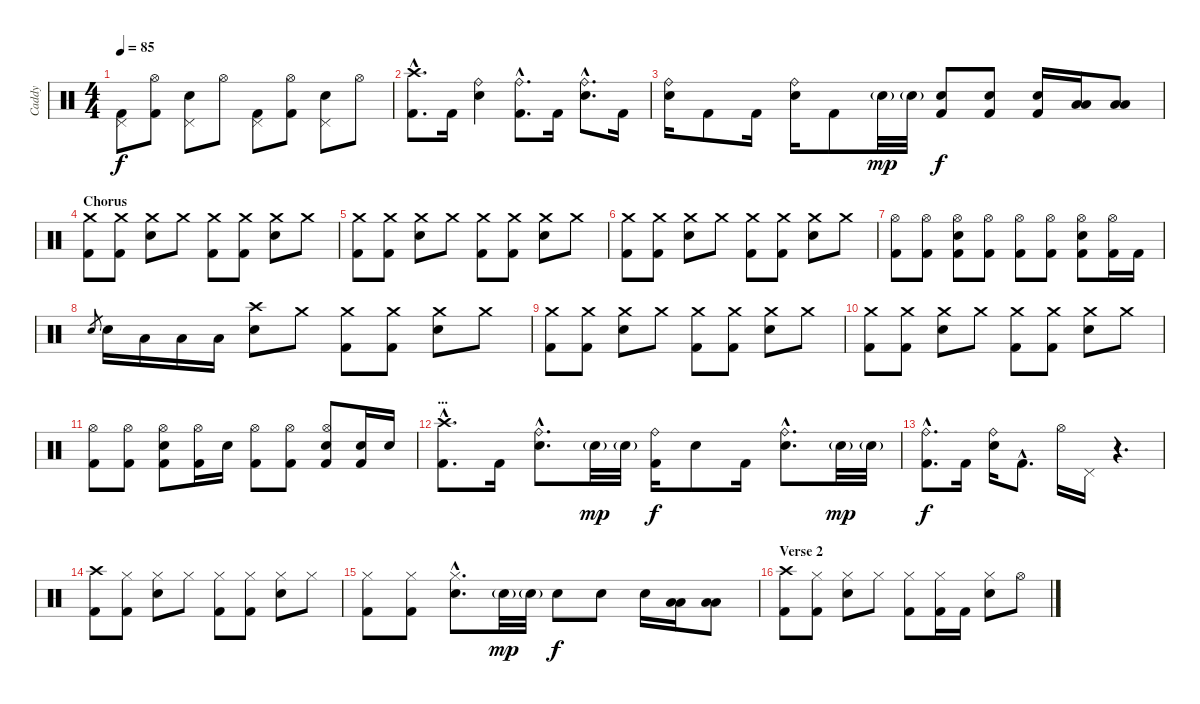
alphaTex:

\track ("Caddy" "Caddy") {instrument percussion}
\staff {score}
\articulation defaults
\ts (4 4)
\tempo 85
\clef neutral
\ks c
("Pedal Hi-Hat (hit)" "Kick (hit) 2").8{dy f} ("Hi-Hat (open)" "Kick (hit) 2").8 ("Pedal Hi-Hat (hit)" "Electric Snare (hit)").8 "Hi-Hat (open)".8 ("Pedal Hi-Hat (hit)" "Kick (hit) 2").8 ("Hi-Hat (open)" "Kick (hit) 2").8 ("Pedal Hi-Hat (hit)" "Electric Snare (hit)").8 "Hi-Hat (open)".8 |
("Crash high (hit)"{hac} "Kick (hit) 2"{hac}).8{d} "Kick (hit) 2".16 ("Ride (bell)" "Electric Snare (hit)").4 ("Ride (bell)"{hac} "Kick (hit) 2"{hac}).8{d} "Kick (hit) 2".16 ("Ride (bell)"{hac} "Electric Snare (hit)"{hac}).8{d} "Kick (hit) 2".16 |
("Ride (bell)" "Electric Snare (hit)").16 "Kick (hit) 2".8 "Kick (hit) 2".16 ("Ride (bell)" "Electric Snare (hit)").16 "Kick (hit) 2".8 "Electric Snare (hit)"{g}.32{dy mp} "Electric Snare (hit)"{g}.32 ("Electric Snare (hit)" "Kick (hit) 2").8{dy f} ("Electric Snare (hit)" "Kick (hit) 2").8 ("Electric Snare (hit)" "Kick (hit) 2").16 ("Low Tom (hit)" "Low Floor Tom (hit)").16 ("Low Tom (hit)" "Low Floor Tom (hit)").8 |
\section ("" "Chorus")
("Crash medium (hit)" "Kick (hit) 2").8 ("Crash medium (hit)" "Kick (hit) 2").8 ("Crash medium (hit)" "Electric Snare (hit)").8 "Crash medium (hit)".8 ("Crash medium (hit)" "Kick (hit) 2").8 ("Crash medium (hit)" "Kick (hit) 2").8 ("Crash medium (hit)" "Electric Snare (hit)").8 "Crash medium (hit)".8 |
("Crash medium (hit)" "Kick (hit) 2").8 ("Crash medium (hit)" "Kick (hit) 2").8 ("Crash medium (hit)" "Electric Snare (hit)").8 "Crash medium (hit)".8 ("Crash medium (hit)" "Kick (hit) 2").8 ("Crash medium (hit)" "Kick (hit) 2").8 ("Crash medium (hit)" "Electric Snare (hit)").8 "Crash medium (hit)".8 |
("Crash medium (hit)" "Kick (hit) 2").8 ("Crash medium (hit)" "Kick (hit) 2").8 ("Crash medium (hit)" "Electric Snare (hit)").8 "Crash medium (hit)".8 ("Crash medium (hit)" "Kick (hit) 2").8 ("Crash medium (hit)" "Kick (hit) 2").8 ("Crash medium (hit)" "Electric Snare (hit)").8 "Crash medium (hit)".8 |
("Hi-Hat (open)" "Kick (hit) 2").8 ("Hi-Hat (open)" "Kick (hit) 2").8 ("Hi-Hat (open)" "Electric Snare (hit)" "Kick (hit) 2").8 ("Hi-Hat (open)" "Kick (hit) 2").8 ("Hi-Hat (open)" "Kick (hit) 2").8 ("Hi-Hat (open)" "Kick (hit) 2").8 ("Hi-Hat (open)" "Electric Snare (hit)" "Kick (hit) 2").8 ("Hi-Hat (open)" "Kick (hit) 2").16 "Kick (hit) 2".16 |
"Electric Snare (hit)".8{gr} "Electric Snare (hit)".16 "Low Tom (hit)".16 "Low Tom (hit)".16 "Low Tom (hit)".16 ("Crash high (hit)" "Electric Snare (hit)").8 "Crash medium (hit)".8 ("Crash medium (hit)" "Kick (hit) 2").8 ("Crash medium (hit)" "Kick (hit) 2").8 ("Crash medium (hit)" "Electric Snare (hit)").8 "Crash medium (hit)".8 |
("Crash medium (hit)" "Kick (hit) 2").8 ("Crash medium (hit)" "Kick (hit) 2").8 ("Crash medium (hit)" "Electric Snare (hit)").8 "Crash medium (hit)".8 ("Crash medium (hit)" "Kick (hit) 2").8 ("Crash medium (hit)" "Kick (hit) 2").8 ("Crash medium (hit)" "Electric Snare (hit)").8 "Crash medium (hit)".8 |
("Crash medium (hit)" "Kick (hit) 2").8 ("Crash medium (hit)" "Kick (hit) 2").8 ("Crash medium (hit)" "Electric Snare (hit)").8 "Crash medium (hit)".8 ("Crash medium (hit)" "Kick (hit) 2").8 ("Crash medium (hit)" "Kick (hit) 2").8 ("Crash medium (hit)" "Electric Snare (hit)").8 "Crash medium (hit)".8 |
("Hi-Hat (open)" "Kick (hit) 2").8 ("Hi-Hat (open)" "Kick (hit) 2").8 ("Hi-Hat (open)" "Electric Snare (hit)" "Kick (hit) 2").8 ("Hi-Hat (open)" "Kick (hit) 2").16 "Electric Snare (hit)".16 ("Hi-Hat (open)" "Kick (hit) 2").8 ("Hi-Hat (open)" "Kick (hit) 2").8 ("Hi-Hat (open)" "Electric Snare (hit)" "Kick (hit) 2").8 ("Electric Snare (hit)" "Kick (hit) 2").16 "Electric Snare (hit)".16 |
\section ("" "...")
("Crash high (hit)"{hac} "Kick (hit) 2"{hac}).8{d} "Kick (hit) 2".16 ("Ride (bell)"{hac} "Electric Snare (hit)"{hac}).8{d} "Electric Snare (hit)"{g}.32{dy mp} "Electric Snare (hit)"{g}.32 ("Ride (bell)" "Kick (hit) 2").16{dy f} "Electric Snare (hit)".8 "Kick (hit) 2".16 ("Ride (bell)"{hac} "Electric Snare (hit)"{hac}).8{d} "Electric Snare (hit)"{g}.32{dy mp} "Electric Snare (hit)"{g}.32 |
("Ride (bell)"{hac} "Kick (hit) 2"{hac}).8{d dy f} "Kick (hit) 2".16 ("Ride (bell)" "Electric Snare (hit)").16 "Kick (hit) 2"{hac}.8{d} "Hi-Hat (open)".16 "Pedal Hi-Hat (hit)".16 r.4{d} |
("Crash high (hit)" "Kick (hit) 2").8 ("Hi-Hat (closed)" "Kick (hit) 2").8 ("Hi-Hat (closed)" "Electric Snare (hit)").8 "Hi-Hat (closed)".8 ("Hi-Hat (closed)" "Kick (hit) 2").8 ("Hi-Hat (closed)" "Kick (hit) 2").8 ("Hi-Hat (closed)" "Electric Snare (hit)").8 "Hi-Hat (closed)".8 |
("Hi-Hat (closed)" "Kick (hit) 2").8 ("Hi-Hat (closed)" "Kick (hit) 2").8 ("Hi-Hat (closed)"{hac} "Electric Snare (hit)"{hac}).8{d} "Electric Snare (hit)"{g}.32{dy mp} "Electric Snare (hit)"{g}.32 "Electric Snare (hit)".8{dy f} "Electric Snare (hit)".8 "Electric Snare (hit)".16 ("Low Tom (hit)" "Low Floor Tom (hit)").16 ("Low Tom (hit)" "Low Floor Tom (hit)").8 |
\section ("" "Verse 2")
("Crash high (hit)" "Kick (hit) 2").8 ("Hi-Hat (closed)" "Kick (hit) 2").8 ("Hi-Hat (closed)" "Electric Snare (hit)").8 "Hi-Hat (closed)".8 ("Hi-Hat (closed)" "Kick (hit) 2").8 ("Hi-Hat (closed)" "Kick (hit) 2").16 "Kick (hit) 2".16 ("Hi-Hat (closed)" "Electric Snare (hit)").8 "Hi-Hat (open)".8
